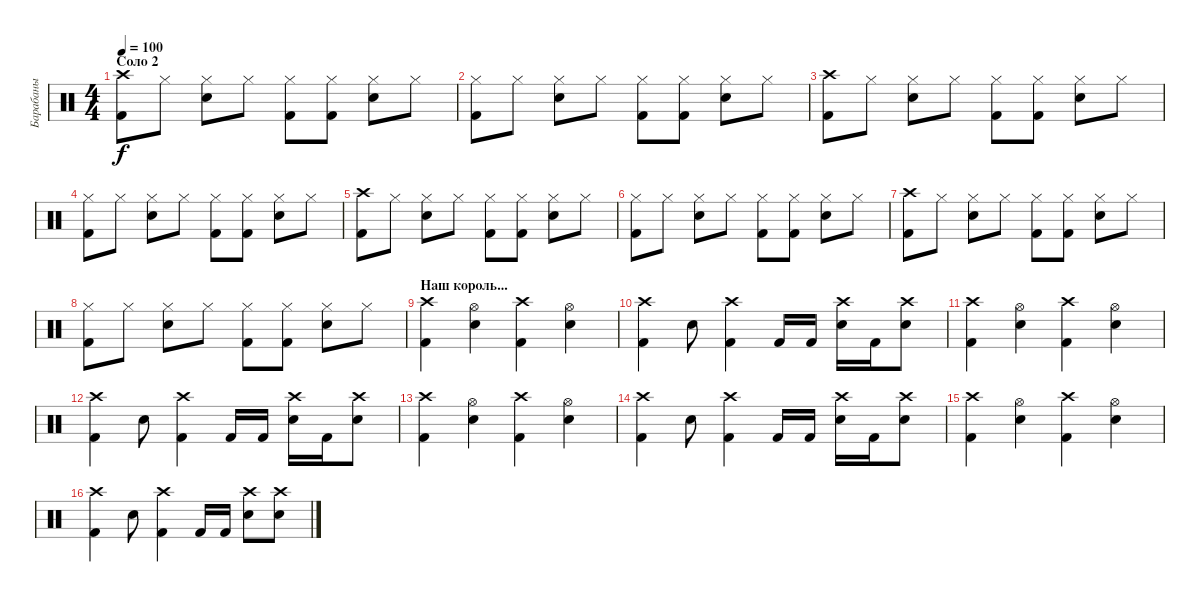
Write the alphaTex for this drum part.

\track ("Барабаны" "Барабаны") {instrument percussion}
\staff {score}
\articulation defaults
\ts (4 4)
\section ("" "Соло 2")
\tempo 100
\clef neutral
\ks c
("Crash high (hit)" "Kick (hit) 2").8{dy f} "Hi-Hat (closed)".8 ("Hi-Hat (closed)" "Snare (hit) 2").8 "Hi-Hat (closed)".8 ("Hi-Hat (closed)" "Kick (hit) 2").8 ("Hi-Hat (closed)" "Kick (hit) 2").8 ("Hi-Hat (closed)" "Snare (hit) 2").8 "Hi-Hat (closed)".8 |
("Hi-Hat (closed)" "Kick (hit) 2").8 "Hi-Hat (closed)".8 ("Hi-Hat (closed)" "Snare (hit) 2").8 "Hi-Hat (closed)".8 ("Hi-Hat (closed)" "Kick (hit) 2").8 ("Hi-Hat (closed)" "Kick (hit) 2").8 ("Hi-Hat (closed)" "Snare (hit) 2").8 "Hi-Hat (closed)".8 |
("Crash high (hit)" "Kick (hit) 2").8 "Hi-Hat (closed)".8 ("Hi-Hat (closed)" "Snare (hit) 2").8 "Hi-Hat (closed)".8 ("Hi-Hat (closed)" "Kick (hit) 2").8 ("Hi-Hat (closed)" "Kick (hit) 2").8 ("Hi-Hat (closed)" "Snare (hit) 2").8 "Hi-Hat (closed)".8 |
("Hi-Hat (closed)" "Kick (hit) 2").8 "Hi-Hat (closed)".8 ("Hi-Hat (closed)" "Snare (hit) 2").8 "Hi-Hat (closed)".8 ("Hi-Hat (closed)" "Kick (hit) 2").8 ("Hi-Hat (closed)" "Kick (hit) 2").8 ("Hi-Hat (closed)" "Snare (hit) 2").8 "Hi-Hat (closed)".8 |
("Crash high (hit)" "Kick (hit) 2").8 "Hi-Hat (closed)".8 ("Hi-Hat (closed)" "Snare (hit) 2").8 "Hi-Hat (closed)".8 ("Hi-Hat (closed)" "Kick (hit) 2").8 ("Hi-Hat (closed)" "Kick (hit) 2").8 ("Hi-Hat (closed)" "Snare (hit) 2").8 "Hi-Hat (closed)".8 |
("Hi-Hat (closed)" "Kick (hit) 2").8 "Hi-Hat (closed)".8 ("Hi-Hat (closed)" "Snare (hit) 2").8 "Hi-Hat (closed)".8 ("Hi-Hat (closed)" "Kick (hit) 2").8 ("Hi-Hat (closed)" "Kick (hit) 2").8 ("Hi-Hat (closed)" "Snare (hit) 2").8 "Hi-Hat (closed)".8 |
("Crash high (hit)" "Kick (hit) 2").8 "Hi-Hat (closed)".8 ("Hi-Hat (closed)" "Snare (hit) 2").8 "Hi-Hat (closed)".8 ("Hi-Hat (closed)" "Kick (hit) 2").8 ("Hi-Hat (closed)" "Kick (hit) 2").8 ("Hi-Hat (closed)" "Snare (hit) 2").8 "Hi-Hat (closed)".8 |
("Hi-Hat (closed)" "Kick (hit) 2").8 "Hi-Hat (closed)".8 ("Hi-Hat (closed)" "Snare (hit) 2").8 "Hi-Hat (closed)".8 ("Hi-Hat (closed)" "Kick (hit) 2").8 ("Hi-Hat (closed)" "Kick (hit) 2").8 ("Hi-Hat (closed)" "Snare (hit) 2").8 "Hi-Hat (closed)".8 |
\section ("" "Наш король...")
("Crash high (hit)" "Kick (hit) 2").4 ("Hi-Hat (open)" "Snare (hit) 2").4 ("Crash high (hit)" "Kick (hit) 2").4 ("Hi-Hat (open)" "Snare (hit) 2").4 |
("Crash high (hit)" "Kick (hit) 2").4 "Snare (hit) 2".8 ("Crash high (hit)" "Kick (hit) 2").4 "Kick (hit) 2".16 "Kick (hit) 2".16 ("Crash high (hit)" "Snare (hit) 2").16 "Kick (hit) 2".16 ("Crash high (hit)" "Snare (hit) 2").8 |
("Crash high (hit)" "Kick (hit) 2").4 ("Hi-Hat (open)" "Snare (hit) 2").4 ("Crash high (hit)" "Kick (hit) 2").4 ("Hi-Hat (open)" "Snare (hit) 2").4 |
("Crash high (hit)" "Kick (hit) 2").4 "Snare (hit) 2".8 ("Crash high (hit)" "Kick (hit) 2").4 "Kick (hit) 2".16 "Kick (hit) 2".16 ("Crash high (hit)" "Snare (hit) 2").16 "Kick (hit) 2".16 ("Crash high (hit)" "Snare (hit) 2").8 |
("Crash high (hit)" "Kick (hit) 2").4 ("Hi-Hat (open)" "Snare (hit) 2").4 ("Crash high (hit)" "Kick (hit) 2").4 ("Hi-Hat (open)" "Snare (hit) 2").4 |
("Crash high (hit)" "Kick (hit) 2").4 "Snare (hit) 2".8 ("Crash high (hit)" "Kick (hit) 2").4 "Kick (hit) 2".16 "Kick (hit) 2".16 ("Crash high (hit)" "Snare (hit) 2").16 "Kick (hit) 2".16 ("Crash high (hit)" "Snare (hit) 2").8 |
("Crash high (hit)" "Kick (hit) 2").4 ("Hi-Hat (open)" "Snare (hit) 2").4 ("Crash high (hit)" "Kick (hit) 2").4 ("Hi-Hat (open)" "Snare (hit) 2").4 |
("Crash high (hit)" "Kick (hit) 2").4 "Snare (hit) 2".8 ("Crash high (hit)" "Kick (hit) 2").4 "Kick (hit) 2".16 "Kick (hit) 2".16 ("Crash high (hit)" "Snare (hit) 2").8 ("Crash high (hit)" "Snare (hit) 2").8
